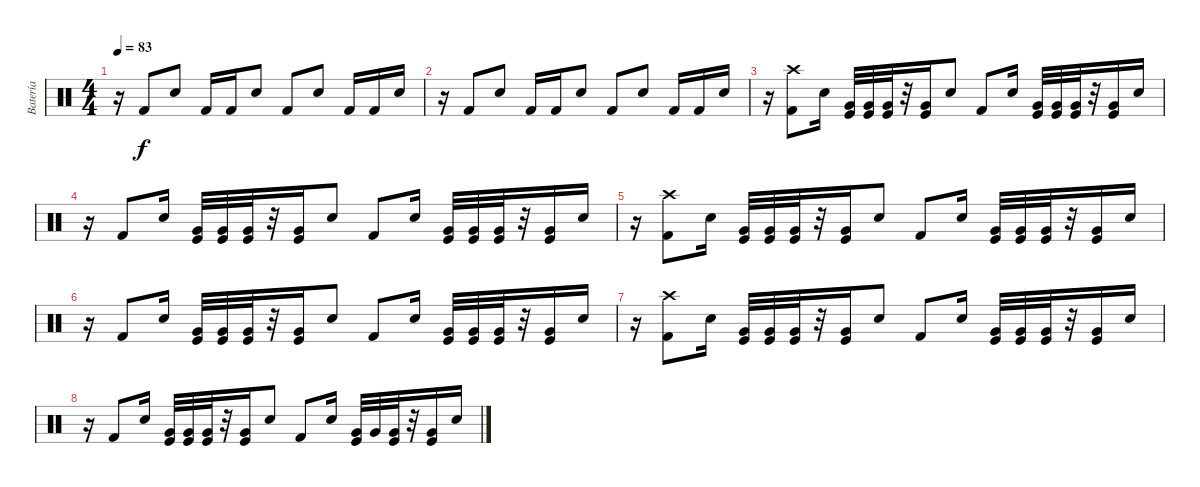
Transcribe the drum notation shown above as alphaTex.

\track ("Batería" "Batería") {instrument percussion}
\staff {score}
\articulation defaults
\ts (4 4)
\tempo 83
\clef neutral
\ks c
r.16{dy f volume 13} "Kick (hit) 2".8 "Electric Snare (hit)".8 "Kick (hit) 2".16 "Kick (hit) 2".16 "Electric Snare (hit)".8 "Kick (hit) 2".8 "Electric Snare (hit)".8 "Kick (hit) 2".16 "Kick (hit) 2".16 "Electric Snare (hit)".16 |
r.16{volume 13} "Kick (hit) 2".8 "Electric Snare (hit)".8 "Kick (hit) 2".16 "Kick (hit) 2".16 "Electric Snare (hit)".8 "Kick (hit) 2".8 "Electric Snare (hit)".8 "Kick (hit) 2".16 "Kick (hit) 2".16 "Electric Snare (hit)".16 |
r.16 ("Crash high (hit)" "Kick (hit) 2").8 "Electric Snare (hit)".16 ("Very Low Tom (hit)" "Kick (hit)").32 ("Very Low Tom (hit)" "Kick (hit)").32 ("Very Low Tom (hit)" "Kick (hit)").32 r.32 ("Very Low Tom (hit)" "Kick (hit)").16 "Electric Snare (hit)".8 "Kick (hit) 2".8 "Electric Snare (hit)".16 ("Very Low Tom (hit)" "Kick (hit)").32 ("Very Low Tom (hit)" "Kick (hit)").32 ("Very Low Tom (hit)" "Kick (hit)").32 r.32 ("Very Low Tom (hit)" "Kick (hit)").16 "Electric Snare (hit)".16 |
r.16 "Kick (hit) 2".8 "Electric Snare (hit)".16 ("Very Low Tom (hit)" "Kick (hit)").32 ("Very Low Tom (hit)" "Kick (hit)").32 ("Very Low Tom (hit)" "Kick (hit)").32 r.32 ("Very Low Tom (hit)" "Kick (hit)").16 "Electric Snare (hit)".8 "Kick (hit) 2".8 "Electric Snare (hit)".16 ("Very Low Tom (hit)" "Kick (hit)").32 ("Very Low Tom (hit)" "Kick (hit)").32 ("Very Low Tom (hit)" "Kick (hit)").32 r.32 ("Very Low Tom (hit)" "Kick (hit)").16 "Electric Snare (hit)".16 |
r.16 ("Crash high (hit)" "Kick (hit) 2").8 "Electric Snare (hit)".16 ("Very Low Tom (hit)" "Kick (hit)").32 ("Very Low Tom (hit)" "Kick (hit)").32 ("Very Low Tom (hit)" "Kick (hit)").32 r.32 ("Very Low Tom (hit)" "Kick (hit)").16 "Electric Snare (hit)".8 "Kick (hit) 2".8 "Electric Snare (hit)".16 ("Very Low Tom (hit)" "Kick (hit)").32 ("Very Low Tom (hit)" "Kick (hit)").32 ("Very Low Tom (hit)" "Kick (hit)").32 r.32 ("Very Low Tom (hit)" "Kick (hit)").16 "Electric Snare (hit)".16 |
r.16 "Kick (hit) 2".8 "Electric Snare (hit)".16 ("Very Low Tom (hit)" "Kick (hit)").32 ("Very Low Tom (hit)" "Kick (hit)").32 ("Very Low Tom (hit)" "Kick (hit)").32 r.32 ("Very Low Tom (hit)" "Kick (hit)").16 "Electric Snare (hit)".8 "Kick (hit) 2".8 "Electric Snare (hit)".16 ("Very Low Tom (hit)" "Kick (hit)").32 ("Very Low Tom (hit)" "Kick (hit)").32 ("Very Low Tom (hit)" "Kick (hit)").32 r.32 ("Very Low Tom (hit)" "Kick (hit)").16 "Electric Snare (hit)".16 |
r.16 ("Crash high (hit)" "Kick (hit) 2").8 "Electric Snare (hit)".16 ("Very Low Tom (hit)" "Kick (hit)").32 ("Very Low Tom (hit)" "Kick (hit)").32 ("Very Low Tom (hit)" "Kick (hit)").32 r.32 ("Very Low Tom (hit)" "Kick (hit)").16 "Electric Snare (hit)".8 "Kick (hit) 2".8 "Electric Snare (hit)".16 ("Very Low Tom (hit)" "Kick (hit)").32 ("Very Low Tom (hit)" "Kick (hit)").32 ("Very Low Tom (hit)" "Kick (hit)").32 r.32 ("Very Low Tom (hit)" "Kick (hit)").16 "Electric Snare (hit)".16 |
r.16 "Kick (hit) 2".8 "Electric Snare (hit)".16 ("Very Low Tom (hit)" "Kick (hit)").32 ("Very Low Tom (hit)" "Kick (hit)").32 ("Very Low Tom (hit)" "Kick (hit)").32 r.32 ("Very Low Tom (hit)" "Kick (hit)").16 "Electric Snare (hit)".8 "Kick (hit) 2".8 "Electric Snare (hit)".16 ("Very Low Tom (hit)" "Kick (hit)").32 "Very Low Tom (hit)".32 ("Very Low Tom (hit)" "Kick (hit)").32 r.32 ("Very Low Tom (hit)" "Kick (hit)").16 "Electric Snare (hit)".16
